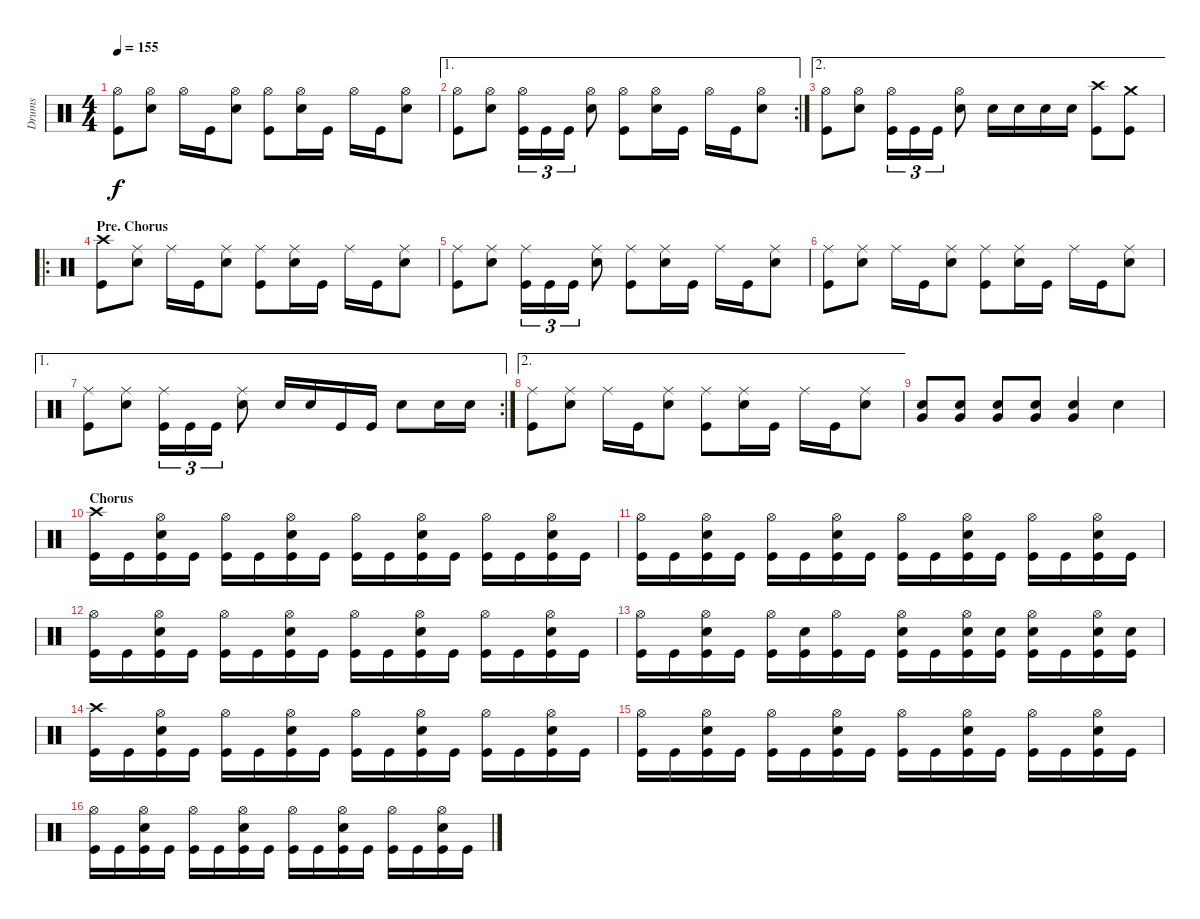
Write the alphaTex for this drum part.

\track ("Drums" "Drums") {instrument percussion}
\staff {score}
\articulation defaults
\ts (4 4)
\tempo 155
\clef neutral
\ks c
("Hi-Hat (open)" "Kick (hit)").8{dy f} ("Hi-Hat (open)" "Snare (hit) 2").8 "Hi-Hat (open)".16 "Kick (hit)".16 ("Hi-Hat (open)" "Snare (hit) 2").8 ("Hi-Hat (open)" "Kick (hit)").8 ("Hi-Hat (open)" "Snare (hit) 2").16 "Kick (hit)".16 "Hi-Hat (open)".16 "Kick (hit)".16 ("Hi-Hat (open)" "Snare (hit) 2").8 |
\ae 1
\rc 2
("Hi-Hat (open)" "Kick (hit)").8 ("Hi-Hat (open)" "Snare (hit) 2").8 ("Hi-Hat (open)" "Kick (hit)").16{tu (3 2)} "Kick (hit)".16{tu (3 2)} "Kick (hit)".16{tu (3 2)} ("Hi-Hat (open)" "Snare (hit) 2").8 ("Hi-Hat (open)" "Kick (hit)").8 ("Hi-Hat (open)" "Snare (hit) 2").16 "Kick (hit)".16 "Hi-Hat (open)".16 "Kick (hit)".16 ("Hi-Hat (open)" "Snare (hit) 2").8 |
\ae 2
("Hi-Hat (open)" "Kick (hit)").8 ("Hi-Hat (open)" "Snare (hit) 2").8 ("Hi-Hat (open)" "Kick (hit)").16{tu (3 2)} "Kick (hit)".16{tu (3 2)} "Kick (hit)".16{tu (3 2)} ("Hi-Hat (open)" "Snare (hit) 2").8 "Snare (hit) 2".16 "Snare (hit) 2".16 "Snare (hit) 2".16 "Snare (hit) 2".16 ("Crash high (hit)" "Kick (hit)").8 ("Crash medium (hit)" "Kick (hit)").8 |
\ro
\section ("" "Pre. Chorus")
("Crash high (hit)" "Kick (hit)").8 ("Ride (middle)" "Snare (hit) 2").8 "Ride (middle)".16 "Kick (hit)".16 ("Ride (middle)" "Snare (hit) 2").8 ("Ride (middle)" "Kick (hit)").8 ("Ride (middle)" "Snare (hit) 2").16 "Kick (hit)".16 "Ride (middle)".16 "Kick (hit)".16 ("Ride (middle)" "Snare (hit) 2").8 |
("Ride (middle)" "Kick (hit)").8 ("Ride (middle)" "Snare (hit) 2").8 ("Ride (middle)" "Kick (hit)").16{tu (3 2)} "Kick (hit)".16{tu (3 2)} "Kick (hit)".16{tu (3 2)} ("Ride (middle)" "Snare (hit) 2").8 ("Ride (middle)" "Kick (hit)").8 ("Ride (middle)" "Snare (hit) 2").16 "Kick (hit)".16 "Ride (middle)".16 "Kick (hit)".16 ("Ride (middle)" "Snare (hit) 2").8 |
("Ride (middle)" "Kick (hit)").8 ("Ride (middle)" "Snare (hit) 2").8 "Ride (middle)".16 "Kick (hit)".16 ("Ride (middle)" "Snare (hit) 2").8 ("Ride (middle)" "Kick (hit)").8 ("Ride (middle)" "Snare (hit) 2").16 "Kick (hit)".16 "Ride (middle)".16 "Kick (hit)".16 ("Ride (middle)" "Snare (hit) 2").8 |
\ae 1
\rc 2
("Ride (middle)" "Kick (hit)").8 ("Ride (middle)" "Snare (hit) 2").8 ("Ride (middle)" "Kick (hit)").16{tu (3 2)} "Kick (hit)".16{tu (3 2)} "Kick (hit)".16{tu (3 2)} ("Ride (middle)" "Snare (hit) 2").8 "Snare (hit) 2".16 "Snare (hit) 2".16 "Kick (hit)".16 "Kick (hit)".16 "Snare (hit) 2".8 "Snare (hit) 2".16 "Snare (hit) 2".16 |
\ae 2
("Ride (middle)" "Kick (hit)").8 ("Ride (middle)" "Snare (hit) 2").8 "Ride (middle)".16 "Kick (hit)".16 ("Ride (middle)" "Snare (hit) 2").8 ("Ride (middle)" "Kick (hit)").8 ("Ride (middle)" "Snare (hit) 2").16 "Kick (hit)".16 "Ride (middle)".16 "Kick (hit)".16 ("Ride (middle)" "Snare (hit) 2").8 |
("Very Low Tom (hit)" "Snare (hit) 2").8 ("Very Low Tom (hit)" "Snare (hit) 2").8 ("Very Low Tom (hit)" "Snare (hit) 2").8 ("Very Low Tom (hit)" "Snare (hit) 2").8 ("Very Low Tom (hit)" "Snare (hit) 2").4 "Snare (hit) 2".4 |
\section ("" "Chorus")
("Crash high (hit)" "Kick (hit)").16 "Kick (hit)".16 ("Hi-Hat (open)" "Snare (hit) 2" "Kick (hit)").16 "Kick (hit)".16 ("Hi-Hat (open)" "Kick (hit)").16 "Kick (hit)".16 ("Hi-Hat (open)" "Snare (hit) 2" "Kick (hit)").16 "Kick (hit)".16 ("Hi-Hat (open)" "Kick (hit)").16 "Kick (hit)".16 ("Hi-Hat (open)" "Snare (hit) 2" "Kick (hit)").16 "Kick (hit)".16 ("Hi-Hat (open)" "Kick (hit)").16 "Kick (hit)".16 ("Hi-Hat (open)" "Snare (hit) 2" "Kick (hit)").16 "Kick (hit)".16 |
("Hi-Hat (open)" "Kick (hit)").16 "Kick (hit)".16 ("Hi-Hat (open)" "Snare (hit) 2" "Kick (hit)").16 "Kick (hit)".16 ("Hi-Hat (open)" "Kick (hit)").16 "Kick (hit)".16 ("Hi-Hat (open)" "Snare (hit) 2" "Kick (hit)").16 "Kick (hit)".16 ("Hi-Hat (open)" "Kick (hit)").16 "Kick (hit)".16 ("Hi-Hat (open)" "Snare (hit) 2" "Kick (hit)").16 "Kick (hit)".16 ("Hi-Hat (open)" "Kick (hit)").16 "Kick (hit)".16 ("Hi-Hat (open)" "Snare (hit) 2" "Kick (hit)").16 "Kick (hit)".16 |
("Hi-Hat (open)" "Kick (hit)").16 "Kick (hit)".16 ("Hi-Hat (open)" "Snare (hit) 2" "Kick (hit)").16 "Kick (hit)".16 ("Hi-Hat (open)" "Kick (hit)").16 "Kick (hit)".16 ("Hi-Hat (open)" "Snare (hit) 2" "Kick (hit)").16 "Kick (hit)".16 ("Hi-Hat (open)" "Kick (hit)").16 "Kick (hit)".16 ("Hi-Hat (open)" "Snare (hit) 2" "Kick (hit)").16 "Kick (hit)".16 ("Hi-Hat (open)" "Kick (hit)").16 "Kick (hit)".16 ("Hi-Hat (open)" "Snare (hit) 2" "Kick (hit)").16 "Kick (hit)".16 |
("Hi-Hat (open)" "Kick (hit)").16 "Kick (hit)".16 ("Hi-Hat (open)" "Snare (hit) 2" "Kick (hit)").16 "Kick (hit)".16 ("Hi-Hat (open)" "Kick (hit)").16 ("Snare (hit) 2" "Kick (hit)").16 ("Hi-Hat (open)" "Kick (hit)").16 "Kick (hit)".16 ("Hi-Hat (open)" "Snare (hit) 2" "Kick (hit)").16 "Kick (hit)".16 ("Hi-Hat (open)" "Snare (hit) 2" "Kick (hit)").16 ("Snare (hit) 2" "Kick (hit)").16 ("Hi-Hat (open)" "Snare (hit) 2" "Kick (hit)").16 "Kick (hit)".16 ("Hi-Hat (open)" "Snare (hit) 2" "Kick (hit)").16 ("Snare (hit) 2" "Kick (hit)").16 |
("Crash high (hit)" "Kick (hit)").16 "Kick (hit)".16 ("Hi-Hat (open)" "Snare (hit) 2" "Kick (hit)").16 "Kick (hit)".16 ("Hi-Hat (open)" "Kick (hit)").16 "Kick (hit)".16 ("Hi-Hat (open)" "Snare (hit) 2" "Kick (hit)").16 "Kick (hit)".16 ("Hi-Hat (open)" "Kick (hit)").16 "Kick (hit)".16 ("Hi-Hat (open)" "Snare (hit) 2" "Kick (hit)").16 "Kick (hit)".16 ("Hi-Hat (open)" "Kick (hit)").16 "Kick (hit)".16 ("Hi-Hat (open)" "Snare (hit) 2" "Kick (hit)").16 "Kick (hit)".16 |
("Hi-Hat (open)" "Kick (hit)").16 "Kick (hit)".16 ("Hi-Hat (open)" "Snare (hit) 2" "Kick (hit)").16 "Kick (hit)".16 ("Hi-Hat (open)" "Kick (hit)").16 "Kick (hit)".16 ("Hi-Hat (open)" "Snare (hit) 2" "Kick (hit)").16 "Kick (hit)".16 ("Hi-Hat (open)" "Kick (hit)").16 "Kick (hit)".16 ("Hi-Hat (open)" "Snare (hit) 2" "Kick (hit)").16 "Kick (hit)".16 ("Hi-Hat (open)" "Kick (hit)").16 "Kick (hit)".16 ("Hi-Hat (open)" "Snare (hit) 2" "Kick (hit)").16 "Kick (hit)".16 |
("Hi-Hat (open)" "Kick (hit)").16 "Kick (hit)".16 ("Hi-Hat (open)" "Snare (hit) 2" "Kick (hit)").16 "Kick (hit)".16 ("Hi-Hat (open)" "Kick (hit)").16 "Kick (hit)".16 ("Hi-Hat (open)" "Snare (hit) 2" "Kick (hit)").16 "Kick (hit)".16 ("Hi-Hat (open)" "Kick (hit)").16 "Kick (hit)".16 ("Hi-Hat (open)" "Snare (hit) 2" "Kick (hit)").16 "Kick (hit)".16 ("Hi-Hat (open)" "Kick (hit)").16 "Kick (hit)".16 ("Hi-Hat (open)" "Snare (hit) 2" "Kick (hit)").16 "Kick (hit)".16
